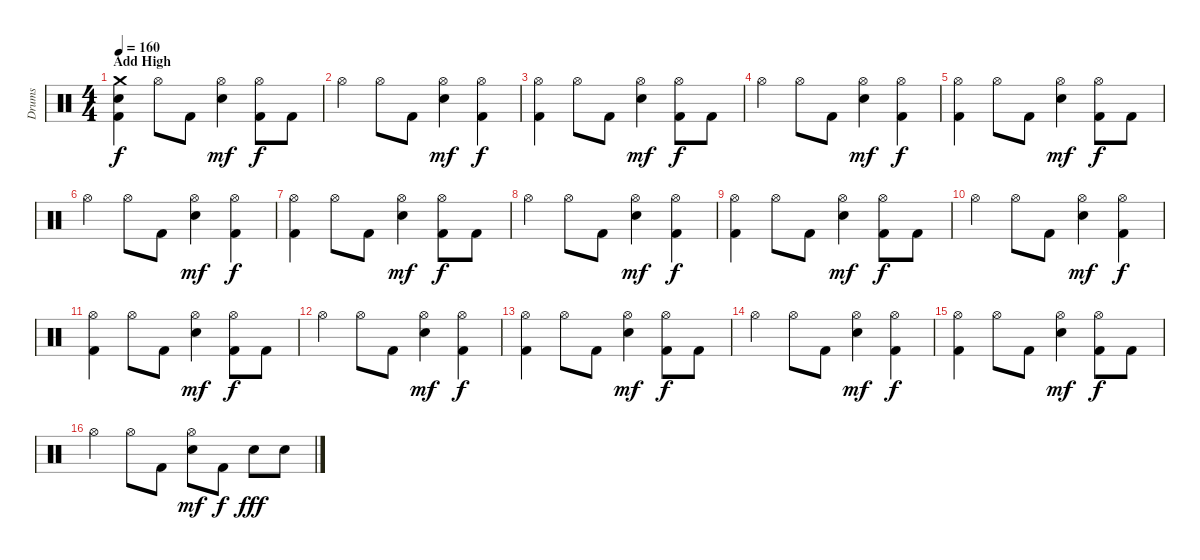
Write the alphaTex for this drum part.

\track ("Drums" "Drums") {instrument percussion}
\staff {score}
\articulation defaults
\ts (4 4)
\section ("" "Add High")
\tempo 160
\clef neutral
\ks c
("Crash medium (hit)" "Electric Snare (hit)" "Kick (hit) 2").4{dy f} "Hi-Hat (open)".8 "Kick (hit) 2".8 ("Hi-Hat (open)" "Electric Snare (hit)").4{dy mf} ("Hi-Hat (open)" "Kick (hit) 2").8{dy f} "Kick (hit) 2".8 |
"Hi-Hat (open)".4 "Hi-Hat (open)".8 "Kick (hit) 2".8 ("Hi-Hat (open)" "Electric Snare (hit)").4{dy mf} ("Hi-Hat (open)" "Kick (hit) 2").4{dy f} |
("Hi-Hat (open)" "Kick (hit) 2").4 "Hi-Hat (open)".8 "Kick (hit) 2".8 ("Hi-Hat (open)" "Electric Snare (hit)").4{dy mf} ("Hi-Hat (open)" "Kick (hit) 2").8{dy f} "Kick (hit) 2".8 |
"Hi-Hat (open)".4 "Hi-Hat (open)".8 "Kick (hit) 2".8 ("Hi-Hat (open)" "Electric Snare (hit)").4{dy mf} ("Hi-Hat (open)" "Kick (hit) 2").4{dy f} |
("Hi-Hat (open)" "Kick (hit) 2").4 "Hi-Hat (open)".8 "Kick (hit) 2".8 ("Hi-Hat (open)" "Electric Snare (hit)").4{dy mf} ("Hi-Hat (open)" "Kick (hit) 2").8{dy f} "Kick (hit) 2".8 |
"Hi-Hat (open)".4 "Hi-Hat (open)".8 "Kick (hit) 2".8 ("Hi-Hat (open)" "Electric Snare (hit)").4{dy mf} ("Hi-Hat (open)" "Kick (hit) 2").4{dy f} |
("Hi-Hat (open)" "Kick (hit) 2").4 "Hi-Hat (open)".8 "Kick (hit) 2".8 ("Hi-Hat (open)" "Electric Snare (hit)").4{dy mf} ("Hi-Hat (open)" "Kick (hit) 2").8{dy f} "Kick (hit) 2".8 |
"Hi-Hat (open)".4 "Hi-Hat (open)".8 "Kick (hit) 2".8 ("Hi-Hat (open)" "Electric Snare (hit)").4{dy mf} ("Hi-Hat (open)" "Kick (hit) 2").4{dy f} |
("Hi-Hat (open)" "Kick (hit) 2").4 "Hi-Hat (open)".8 "Kick (hit) 2".8 ("Hi-Hat (open)" "Electric Snare (hit)").4{dy mf} ("Hi-Hat (open)" "Kick (hit) 2").8{dy f} "Kick (hit) 2".8 |
"Hi-Hat (open)".4 "Hi-Hat (open)".8 "Kick (hit) 2".8 ("Hi-Hat (open)" "Electric Snare (hit)").4{dy mf} ("Hi-Hat (open)" "Kick (hit) 2").4{dy f} |
("Hi-Hat (open)" "Kick (hit) 2").4 "Hi-Hat (open)".8 "Kick (hit) 2".8 ("Hi-Hat (open)" "Electric Snare (hit)").4{dy mf} ("Hi-Hat (open)" "Kick (hit) 2").8{dy f} "Kick (hit) 2".8 |
"Hi-Hat (open)".4 "Hi-Hat (open)".8 "Kick (hit) 2".8 ("Hi-Hat (open)" "Electric Snare (hit)").4{dy mf} ("Hi-Hat (open)" "Kick (hit) 2").4{dy f} |
("Hi-Hat (open)" "Kick (hit) 2").4 "Hi-Hat (open)".8 "Kick (hit) 2".8 ("Hi-Hat (open)" "Electric Snare (hit)").4{dy mf} ("Hi-Hat (open)" "Kick (hit) 2").8{dy f} "Kick (hit) 2".8 |
"Hi-Hat (open)".4 "Hi-Hat (open)".8 "Kick (hit) 2".8 ("Hi-Hat (open)" "Electric Snare (hit)").4{dy mf} ("Hi-Hat (open)" "Kick (hit) 2").4{dy f} |
("Hi-Hat (open)" "Kick (hit) 2").4 "Hi-Hat (open)".8 "Kick (hit) 2".8 ("Hi-Hat (open)" "Electric Snare (hit)").4{dy mf} ("Hi-Hat (open)" "Kick (hit) 2").8{dy f} "Kick (hit) 2".8 |
"Hi-Hat (open)".4 "Hi-Hat (open)".8 "Kick (hit) 2".8 ("Hi-Hat (open)" "Electric Snare (hit)").8{dy mf} "Kick (hit) 2".8{dy f} "Electric Snare (hit)".8{dy fff} "Electric Snare (hit)".8
